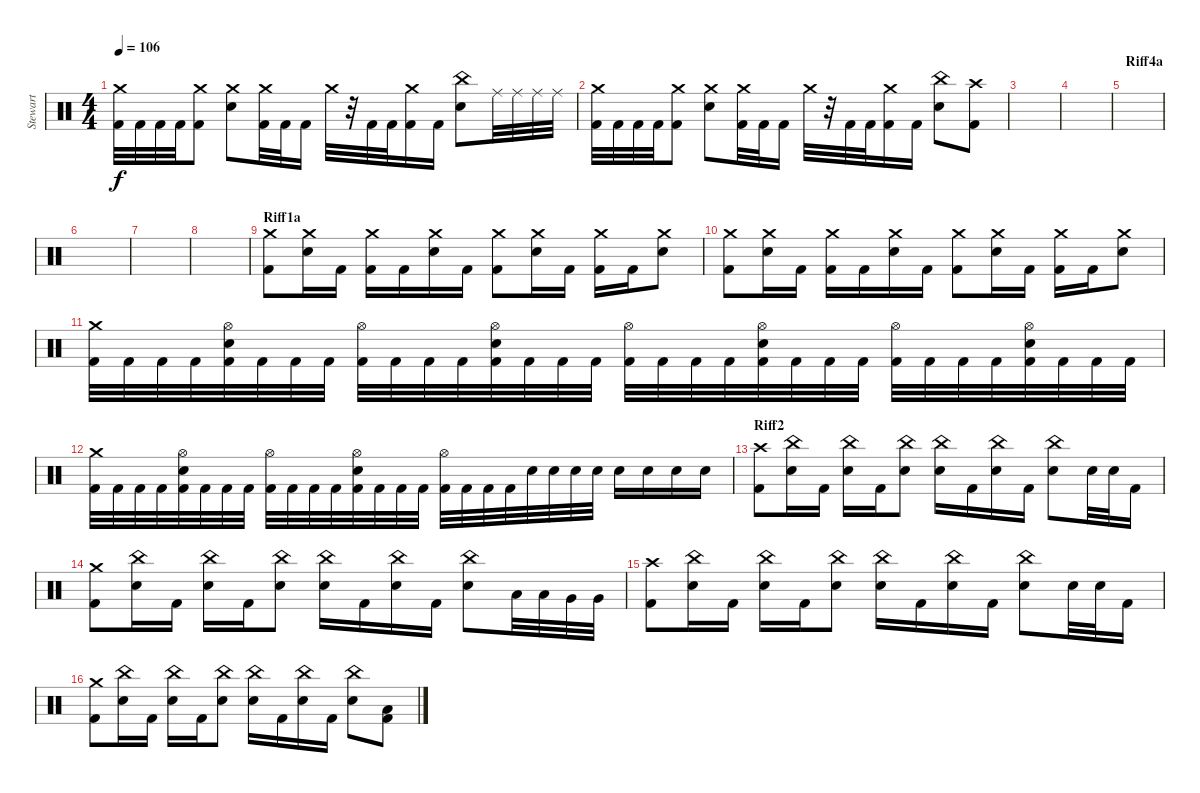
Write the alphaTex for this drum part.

\track ("Stewart" "Stewart") {instrument percussion}
\staff {score}
\articulation defaults
\ts (4 4)
\tempo 106
\clef neutral
\ks c
("Crash medium (hit)" "Kick (hit) 2").32{dy f} "Kick (hit) 2".32 "Kick (hit) 2".32 "Kick (hit) 2".32 ("Crash medium (hit)" "Kick (hit) 2").8 ("Crash medium (hit)" "Electric Snare (hit)").8 ("Crash medium (hit)" "Kick (hit) 2").32 "Kick (hit) 2".32 "Kick (hit) 2".16 "Crash medium (hit)".32 r.32 "Kick (hit) 2".32 "Kick (hit) 2".32 ("Crash medium (hit)" "Kick (hit) 2").16 "Kick (hit) 2".16 ("China (hit)" "Electric Snare (hit)").8 "Ride (middle)".32 "Ride (middle)".32 "Ride (middle)".32 "Ride (middle)".32 |
("Crash medium (hit)" "Kick (hit) 2").32 "Kick (hit) 2".32 "Kick (hit) 2".32 "Kick (hit) 2".32 ("Crash medium (hit)" "Kick (hit) 2").8 ("Crash medium (hit)" "Electric Snare (hit)").8 ("Crash medium (hit)" "Kick (hit) 2").32 "Kick (hit) 2".32 "Kick (hit) 2".16 "Crash medium (hit)".32 r.32 "Kick (hit) 2".32 "Kick (hit) 2".32 ("Crash medium (hit)" "Kick (hit) 2").16 "Kick (hit) 2".16 ("China (hit)" "Electric Snare (hit)").8 ("Crash high (hit)" "Kick (hit) 2").8 |
|
|
\section ("" "Riff4a")
|
|
|
|
\section ("" "Riff1a")
("Crash medium (hit)" "Kick (hit) 2").8 ("Crash medium (hit)" "Electric Snare (hit)").16 "Kick (hit) 2".16 ("Crash medium (hit)" "Kick (hit) 2").16 "Kick (hit) 2".16 ("Crash medium (hit)" "Electric Snare (hit)").16 "Kick (hit) 2".16 ("Crash medium (hit)" "Kick (hit) 2").8 ("Crash medium (hit)" "Electric Snare (hit)").16 "Kick (hit) 2".16 ("Crash medium (hit)" "Kick (hit) 2").16 "Kick (hit) 2".16 ("Crash medium (hit)" "Electric Snare (hit)").8 |
("Crash medium (hit)" "Kick (hit) 2").8 ("Crash medium (hit)" "Electric Snare (hit)").16 "Kick (hit) 2".16 ("Crash medium (hit)" "Kick (hit) 2").16 "Kick (hit) 2".16 ("Crash medium (hit)" "Electric Snare (hit)").16 "Kick (hit) 2".16 ("Crash medium (hit)" "Kick (hit) 2").8 ("Crash medium (hit)" "Electric Snare (hit)").16 "Kick (hit) 2".16 ("Crash medium (hit)" "Kick (hit) 2").16 "Kick (hit) 2".16 ("Crash medium (hit)" "Electric Snare (hit)").8 |
("Crash medium (hit)" "Kick (hit) 2").32 "Kick (hit) 2".32 "Kick (hit) 2".32 "Kick (hit) 2".32 ("Hi-Hat (open)" "Electric Snare (hit)" "Kick (hit) 2").32 "Kick (hit) 2".32 "Kick (hit) 2".32 "Kick (hit) 2".32 ("Hi-Hat (open)" "Kick (hit) 2").32 "Kick (hit) 2".32 "Kick (hit) 2".32 "Kick (hit) 2".32 ("Hi-Hat (open)" "Electric Snare (hit)" "Kick (hit) 2").32 "Kick (hit) 2".32 "Kick (hit) 2".32 "Kick (hit) 2".32 ("Hi-Hat (open)" "Kick (hit) 2").32 "Kick (hit) 2".32 "Kick (hit) 2".32 "Kick (hit) 2".32 ("Hi-Hat (open)" "Electric Snare (hit)" "Kick (hit) 2").32 "Kick (hit) 2".32 "Kick (hit) 2".32 "Kick (hit) 2".32 ("Hi-Hat (open)" "Kick (hit) 2").32 "Kick (hit) 2".32 "Kick (hit) 2".32 "Kick (hit) 2".32 ("Hi-Hat (open)" "Electric Snare (hit)" "Kick (hit) 2").32 "Kick (hit) 2".32 "Kick (hit) 2".32 "Kick (hit) 2".32 |
("Crash medium (hit)" "Kick (hit) 2").32 "Kick (hit) 2".32 "Kick (hit) 2".32 "Kick (hit) 2".32 ("Hi-Hat (open)" "Electric Snare (hit)" "Kick (hit) 2").32 "Kick (hit) 2".32 "Kick (hit) 2".32 "Kick (hit) 2".32 ("Hi-Hat (open)" "Kick (hit) 2").32 "Kick (hit) 2".32 "Kick (hit) 2".32 "Kick (hit) 2".32 ("Hi-Hat (open)" "Electric Snare (hit)" "Kick (hit) 2").32 "Kick (hit) 2".32 "Kick (hit) 2".32 "Kick (hit) 2".32 ("Hi-Hat (open)" "Kick (hit) 2").32 "Kick (hit) 2".32 "Kick (hit) 2".32 "Kick (hit) 2".32 "Electric Snare (hit)".32 "Electric Snare (hit)".32 "Electric Snare (hit)".32 "Electric Snare (hit)".32 "Electric Snare (hit)".16 "Electric Snare (hit)".16 "Electric Snare (hit)".16 "Electric Snare (hit)".16 |
\section ("" "Riff2")
("Crash high (hit)" "Kick (hit) 2").8 ("China (hit)" "Electric Snare (hit)").16 "Kick (hit) 2".16 ("China (hit)" "Electric Snare (hit)").16 "Kick (hit) 2".16 ("China (hit)" "Electric Snare (hit)").8 ("China (hit)" "Electric Snare (hit)").16 "Kick (hit) 2".16 ("China (hit)" "Electric Snare (hit)").16 "Kick (hit) 2".16 ("China (hit)" "Electric Snare (hit)").8 "Electric Snare (hit)".32 "Electric Snare (hit)".32 "Kick (hit) 2".16 |
("Crash medium (hit)" "Kick (hit) 2").8 ("China (hit)" "Electric Snare (hit)").16 "Kick (hit) 2".16 ("China (hit)" "Electric Snare (hit)").16 "Kick (hit) 2".16 ("China (hit)" "Electric Snare (hit)").8 ("China (hit)" "Electric Snare (hit)").16 "Kick (hit) 2".16 ("China (hit)" "Electric Snare (hit)").16 "Kick (hit) 2".16 ("China (hit)" "Electric Snare (hit)").8 "Low Tom (hit)".32 "Low Tom (hit)".32 "Very Low Tom (hit)".32 "Very Low Tom (hit)".32 |
("Crash high (hit)" "Kick (hit) 2").8 ("China (hit)" "Electric Snare (hit)").16 "Kick (hit) 2".16 ("China (hit)" "Electric Snare (hit)").16 "Kick (hit) 2".16 ("China (hit)" "Electric Snare (hit)").8 ("China (hit)" "Electric Snare (hit)").16 "Kick (hit) 2".16 ("China (hit)" "Electric Snare (hit)").16 "Kick (hit) 2".16 ("China (hit)" "Electric Snare (hit)").8 "Electric Snare (hit)".32 "Electric Snare (hit)".32 "Kick (hit) 2".16 |
("Crash medium (hit)" "Kick (hit) 2").8 ("China (hit)" "Electric Snare (hit)").16 "Kick (hit) 2".16 ("China (hit)" "Electric Snare (hit)").16 "Kick (hit) 2".16 ("China (hit)" "Electric Snare (hit)").8 ("China (hit)" "Electric Snare (hit)").16 "Kick (hit) 2".16 ("China (hit)" "Electric Snare (hit)").16 "Kick (hit) 2".16 ("China (hit)" "Electric Snare (hit)").8 ("Low Tom (hit)" "Kick (hit) 2").8
